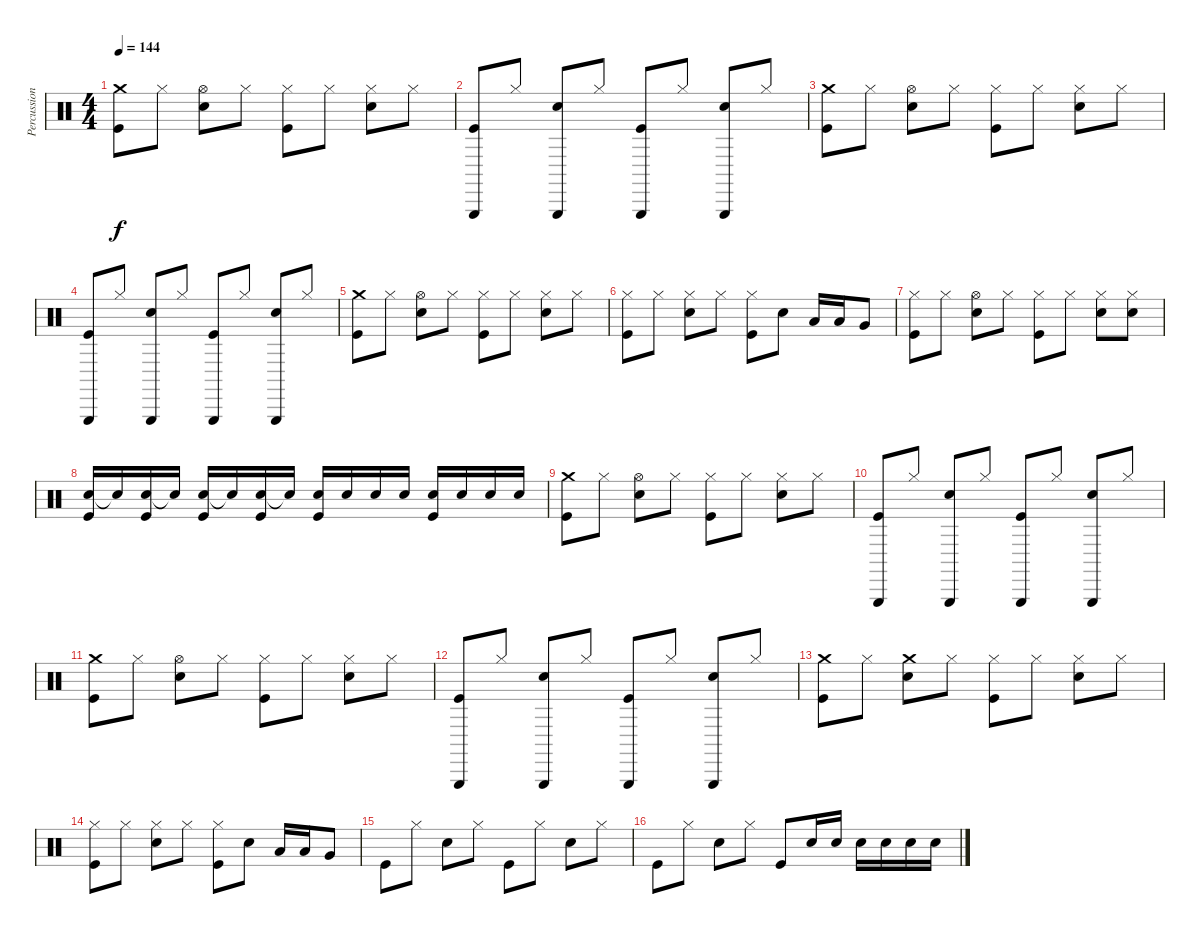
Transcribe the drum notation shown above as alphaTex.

\track ("Percussion" "Percussion") {instrument percussion}
\staff {score}
\articulation defaults
\ts (4 4)
\tempo 144
\clef neutral
\ks c
("Crash medium (hit)" "Kick (hit)").8{dy f} "Hi-Hat (closed)".8 ("Hi-Hat (open)" "Snare (hit) 2").8 "Hi-Hat (closed)".8 ("Hi-Hat (closed)" "Kick (hit)").8 "Hi-Hat (closed)".8 ("Hi-Hat (closed)" "Snare (hit) 2").8 "Hi-Hat (closed)".8 |
("Triangle (hit)" "Kick (hit)").8 "Hi-Hat (closed)".8 ("Triangle (hit)" "Snare (hit) 2").8 "Hi-Hat (closed)".8 ("Triangle (hit)" "Kick (hit)").8 "Hi-Hat (closed)".8 ("Triangle (hit)" "Snare (hit) 2").8 "Hi-Hat (closed)".8 |
("Crash medium (hit)" "Kick (hit)").8 "Hi-Hat (closed)".8 ("Hi-Hat (open)" "Snare (hit) 2").8 "Hi-Hat (closed)".8 ("Hi-Hat (closed)" "Kick (hit)").8 "Hi-Hat (closed)".8 ("Hi-Hat (closed)" "Snare (hit) 2").8 "Hi-Hat (closed)".8 |
("Triangle (hit)" "Kick (hit)").8 "Hi-Hat (closed)".8 ("Triangle (hit)" "Snare (hit) 2").8 "Hi-Hat (closed)".8 ("Triangle (hit)" "Kick (hit)").8 "Hi-Hat (closed)".8 ("Triangle (hit)" "Snare (hit) 2").8 "Hi-Hat (closed)".8 |
("Crash medium (hit)" "Kick (hit)").8 "Hi-Hat (closed)".8 ("Hi-Hat (open)" "Snare (hit) 2").8 "Hi-Hat (closed)".8 ("Hi-Hat (closed)" "Kick (hit)").8 "Hi-Hat (closed)".8 ("Hi-Hat (closed)" "Snare (hit) 2").8 "Hi-Hat (closed)".8 |
("Hi-Hat (closed)" "Kick (hit)").8 "Hi-Hat (closed)".8 ("Hi-Hat (closed)" "Snare (hit) 2").8 "Hi-Hat (closed)".8 ("Hi-Hat (closed)" "Kick (hit)").8 "Snare (hit) 2".8 "Low Floor Tom (hit)".16 "Low Floor Tom (hit)".16 "Very Low Tom (hit)".8 |
("Hi-Hat (closed)" "Kick (hit)").8 "Hi-Hat (closed)".8 ("Hi-Hat (open)" "Snare (hit) 2").8 "Hi-Hat (closed)".8 ("Hi-Hat (closed)" "Kick (hit)").8 "Hi-Hat (closed)".8 ("Hi-Hat (closed)" "Snare (hit) 2").8 ("Hi-Hat (closed)" "Snare (hit) 2").8 |
("Snare (hit) 2" "Kick (hit)").16 "Snare (hit) 2"{t}.16 ("Snare (hit) 2" "Kick (hit)").16 "Snare (hit) 2"{t}.16 ("Snare (hit) 2" "Kick (hit)").16 "Snare (hit) 2"{t}.16 ("Snare (hit) 2" "Kick (hit)").16 "Snare (hit) 2"{t}.16 ("Snare (hit) 2" "Kick (hit)").16 "Snare (hit) 2".16 "Snare (hit) 2".16 "Snare (hit) 2".16 ("Snare (hit) 2" "Kick (hit)").16 "Snare (hit) 2".16 "Snare (hit) 2".16 "Snare (hit) 2".16 |
("Crash medium (hit)" "Kick (hit)").8 "Hi-Hat (closed)".8 ("Hi-Hat (open)" "Snare (hit) 2").8 "Hi-Hat (closed)".8 ("Hi-Hat (closed)" "Kick (hit)").8 "Hi-Hat (closed)".8 ("Hi-Hat (closed)" "Snare (hit) 2").8 "Hi-Hat (closed)".8 |
("Triangle (hit)" "Kick (hit)").8 "Hi-Hat (closed)".8 ("Triangle (hit)" "Snare (hit) 2").8 "Hi-Hat (closed)".8 ("Triangle (hit)" "Kick (hit)").8 "Hi-Hat (closed)".8 ("Triangle (hit)" "Snare (hit) 2").8 "Hi-Hat (closed)".8 |
("Crash medium (hit)" "Kick (hit)").8 "Hi-Hat (closed)".8 ("Hi-Hat (open)" "Snare (hit) 2").8 "Hi-Hat (closed)".8 ("Hi-Hat (closed)" "Kick (hit)").8 "Hi-Hat (closed)".8 ("Hi-Hat (closed)" "Snare (hit) 2").8 "Hi-Hat (closed)".8 |
("Triangle (hit)" "Kick (hit)").8 "Hi-Hat (closed)".8 ("Triangle (hit)" "Snare (hit) 2").8 "Hi-Hat (closed)".8 ("Triangle (hit)" "Kick (hit)").8 "Hi-Hat (closed)".8 ("Triangle (hit)" "Snare (hit) 2").8 "Hi-Hat (closed)".8 |
("Crash medium (hit)" "Kick (hit)").8 "Hi-Hat (closed)".8 ("Crash medium (hit)" "Snare (hit) 2").8 "Hi-Hat (closed)".8 ("Hi-Hat (closed)" "Kick (hit)").8 "Hi-Hat (closed)".8 ("Hi-Hat (closed)" "Snare (hit) 2").8 "Hi-Hat (closed)".8 |
("Hi-Hat (closed)" "Kick (hit)").8 "Hi-Hat (closed)".8 ("Hi-Hat (closed)" "Snare (hit) 2").8 "Hi-Hat (closed)".8 ("Hi-Hat (closed)" "Kick (hit)").8 "Snare (hit) 2".8 "Low Floor Tom (hit)".16 "Low Floor Tom (hit)".16 "Very Low Tom (hit)".8 |
"Kick (hit)".8 "Hi-Hat (closed)".8 "Snare (hit) 2".8 "Hi-Hat (closed)".8 "Kick (hit)".8 "Hi-Hat (closed)".8 "Snare (hit) 2".8 "Hi-Hat (closed)".8 |
"Kick (hit)".8 "Hi-Hat (closed)".8 "Snare (hit) 2".8 "Hi-Hat (closed)".8 "Kick (hit)".8 "Snare (hit) 2".16 "Snare (hit) 2".16 "Snare (hit) 2".16 "Snare (hit) 2".16 "Snare (hit) 2".16 "Snare (hit) 2".16
